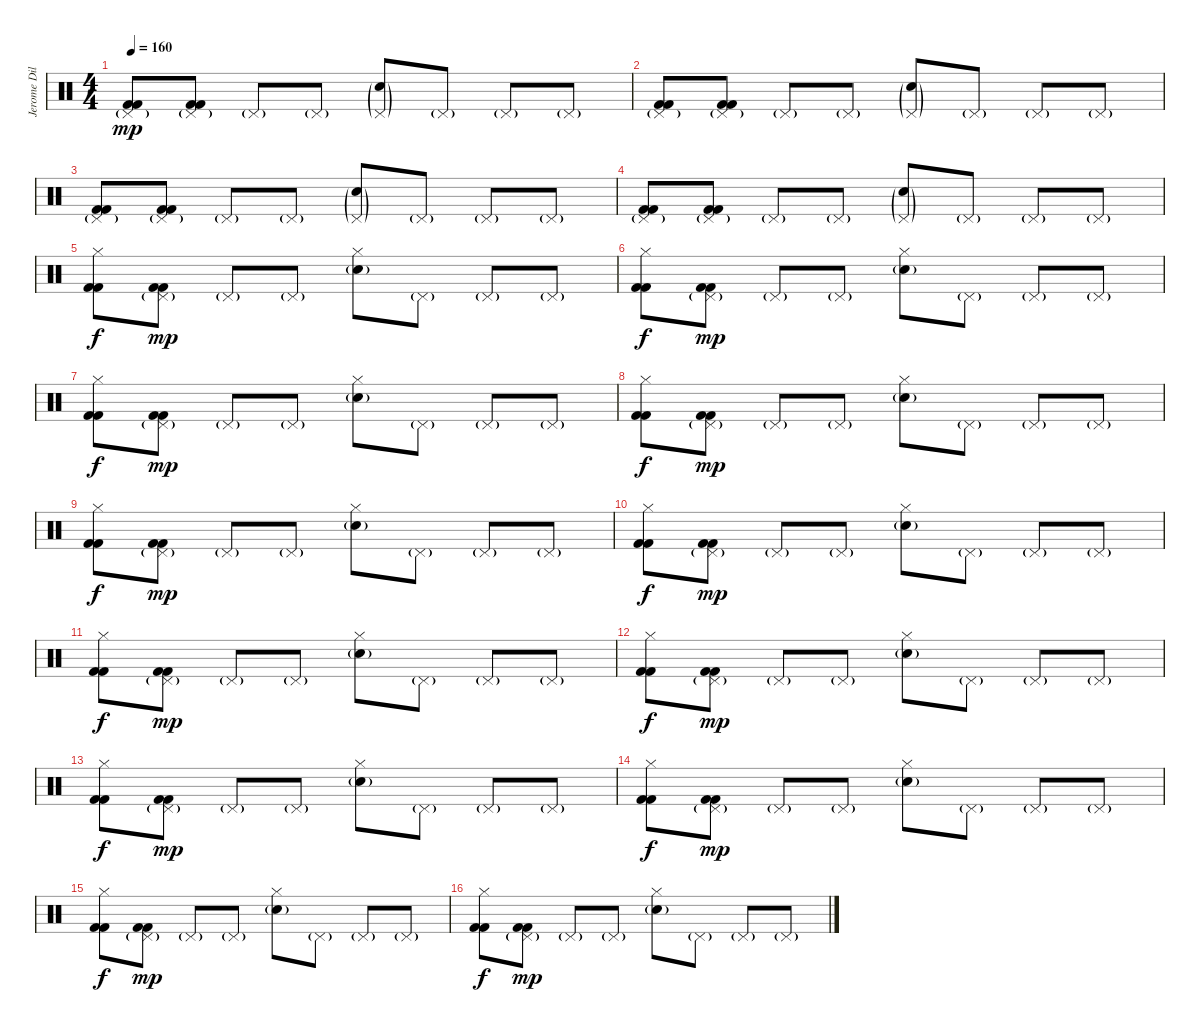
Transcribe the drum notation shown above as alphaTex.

\track ("Jerome Dillon" "Jerome Dil") {instrument percussion}
\staff {score}
\articulation defaults
\ts (4 4)
\tempo 160
\clef neutral
\ks c
("Pedal Hi-Hat (hit)"{g} "Kick (hit) 2" "Kick (hit) 2").8{dy mp} ("Pedal Hi-Hat (hit)"{g} "Kick (hit) 2" "Kick (hit) 2").8 "Pedal Hi-Hat (hit)"{g}.8 "Pedal Hi-Hat (hit)"{g}.8 ("Pedal Hi-Hat (hit)"{g} "Electric Snare (hit)"{g}).8 "Pedal Hi-Hat (hit)"{g}.8 "Pedal Hi-Hat (hit)"{g}.8 "Pedal Hi-Hat (hit)"{g}.8 |
("Pedal Hi-Hat (hit)"{g} "Kick (hit) 2" "Kick (hit) 2").8 ("Pedal Hi-Hat (hit)"{g} "Kick (hit) 2" "Kick (hit) 2").8 "Pedal Hi-Hat (hit)"{g}.8 "Pedal Hi-Hat (hit)"{g}.8 ("Pedal Hi-Hat (hit)"{g} "Electric Snare (hit)"{g}).8 "Pedal Hi-Hat (hit)"{g}.8 "Pedal Hi-Hat (hit)"{g}.8 "Pedal Hi-Hat (hit)"{g}.8 |
("Pedal Hi-Hat (hit)"{g} "Kick (hit) 2" "Kick (hit) 2").8 ("Pedal Hi-Hat (hit)"{g} "Kick (hit) 2" "Kick (hit) 2").8 "Pedal Hi-Hat (hit)"{g}.8 "Pedal Hi-Hat (hit)"{g}.8 ("Pedal Hi-Hat (hit)"{g} "Electric Snare (hit)"{g}).8 "Pedal Hi-Hat (hit)"{g}.8 "Pedal Hi-Hat (hit)"{g}.8 "Pedal Hi-Hat (hit)"{g}.8 |
("Pedal Hi-Hat (hit)"{g} "Kick (hit) 2" "Kick (hit) 2").8 ("Pedal Hi-Hat (hit)"{g} "Kick (hit) 2" "Kick (hit) 2").8 "Pedal Hi-Hat (hit)"{g}.8 "Pedal Hi-Hat (hit)"{g}.8 ("Pedal Hi-Hat (hit)"{g} "Electric Snare (hit)"{g}).8 "Pedal Hi-Hat (hit)"{g}.8 "Pedal Hi-Hat (hit)"{g}.8 "Pedal Hi-Hat (hit)"{g}.8 |
("Hi-Hat (closed)" "Kick (hit) 2" "Kick (hit) 2").8{dy f} ("Pedal Hi-Hat (hit)"{g} "Kick (hit) 2" "Kick (hit) 2").8{dy mp} "Pedal Hi-Hat (hit)"{g}.8 "Pedal Hi-Hat (hit)"{g}.8 ("Hi-Hat (closed)" "Electric Snare (hit)"{g}).8 "Pedal Hi-Hat (hit)"{g}.8 "Pedal Hi-Hat (hit)"{g}.8 "Pedal Hi-Hat (hit)"{g}.8 |
("Hi-Hat (closed)" "Kick (hit) 2" "Kick (hit) 2").8{dy f} ("Pedal Hi-Hat (hit)"{g} "Kick (hit) 2" "Kick (hit) 2").8{dy mp} "Pedal Hi-Hat (hit)"{g}.8 "Pedal Hi-Hat (hit)"{g}.8 ("Hi-Hat (closed)" "Electric Snare (hit)"{g}).8 "Pedal Hi-Hat (hit)"{g}.8 "Pedal Hi-Hat (hit)"{g}.8 "Pedal Hi-Hat (hit)"{g}.8 |
("Hi-Hat (closed)" "Kick (hit) 2" "Kick (hit) 2").8{dy f} ("Pedal Hi-Hat (hit)"{g} "Kick (hit) 2" "Kick (hit) 2").8{dy mp} "Pedal Hi-Hat (hit)"{g}.8 "Pedal Hi-Hat (hit)"{g}.8 ("Hi-Hat (closed)" "Electric Snare (hit)"{g}).8 "Pedal Hi-Hat (hit)"{g}.8 "Pedal Hi-Hat (hit)"{g}.8 "Pedal Hi-Hat (hit)"{g}.8 |
("Hi-Hat (closed)" "Kick (hit) 2" "Kick (hit) 2").8{dy f} ("Pedal Hi-Hat (hit)"{g} "Kick (hit) 2" "Kick (hit) 2").8{dy mp} "Pedal Hi-Hat (hit)"{g}.8 "Pedal Hi-Hat (hit)"{g}.8 ("Hi-Hat (closed)" "Electric Snare (hit)"{g}).8 "Pedal Hi-Hat (hit)"{g}.8 "Pedal Hi-Hat (hit)"{g}.8 "Pedal Hi-Hat (hit)"{g}.8 |
("Hi-Hat (closed)" "Kick (hit) 2" "Kick (hit) 2").8{dy f} ("Pedal Hi-Hat (hit)"{g} "Kick (hit) 2" "Kick (hit) 2").8{dy mp} "Pedal Hi-Hat (hit)"{g}.8 "Pedal Hi-Hat (hit)"{g}.8 ("Hi-Hat (closed)" "Electric Snare (hit)"{g}).8 "Pedal Hi-Hat (hit)"{g}.8 "Pedal Hi-Hat (hit)"{g}.8 "Pedal Hi-Hat (hit)"{g}.8 |
("Hi-Hat (closed)" "Kick (hit) 2" "Kick (hit) 2").8{dy f} ("Pedal Hi-Hat (hit)"{g} "Kick (hit) 2" "Kick (hit) 2").8{dy mp} "Pedal Hi-Hat (hit)"{g}.8 "Pedal Hi-Hat (hit)"{g}.8 ("Hi-Hat (closed)" "Electric Snare (hit)"{g}).8 "Pedal Hi-Hat (hit)"{g}.8 "Pedal Hi-Hat (hit)"{g}.8 "Pedal Hi-Hat (hit)"{g}.8 |
("Hi-Hat (closed)" "Kick (hit) 2" "Kick (hit) 2").8{dy f} ("Pedal Hi-Hat (hit)"{g} "Kick (hit) 2" "Kick (hit) 2").8{dy mp} "Pedal Hi-Hat (hit)"{g}.8 "Pedal Hi-Hat (hit)"{g}.8 ("Hi-Hat (closed)" "Electric Snare (hit)"{g}).8 "Pedal Hi-Hat (hit)"{g}.8 "Pedal Hi-Hat (hit)"{g}.8 "Pedal Hi-Hat (hit)"{g}.8 |
("Hi-Hat (closed)" "Kick (hit) 2" "Kick (hit) 2").8{dy f} ("Pedal Hi-Hat (hit)"{g} "Kick (hit) 2" "Kick (hit) 2").8{dy mp} "Pedal Hi-Hat (hit)"{g}.8 "Pedal Hi-Hat (hit)"{g}.8 ("Hi-Hat (closed)" "Electric Snare (hit)"{g}).8 "Pedal Hi-Hat (hit)"{g}.8 "Pedal Hi-Hat (hit)"{g}.8 "Pedal Hi-Hat (hit)"{g}.8 |
("Hi-Hat (closed)" "Kick (hit) 2" "Kick (hit) 2").8{dy f} ("Pedal Hi-Hat (hit)"{g} "Kick (hit) 2" "Kick (hit) 2").8{dy mp} "Pedal Hi-Hat (hit)"{g}.8 "Pedal Hi-Hat (hit)"{g}.8 ("Hi-Hat (closed)" "Electric Snare (hit)"{g}).8 "Pedal Hi-Hat (hit)"{g}.8 "Pedal Hi-Hat (hit)"{g}.8 "Pedal Hi-Hat (hit)"{g}.8 |
("Hi-Hat (closed)" "Kick (hit) 2" "Kick (hit) 2").8{dy f} ("Pedal Hi-Hat (hit)"{g} "Kick (hit) 2" "Kick (hit) 2").8{dy mp} "Pedal Hi-Hat (hit)"{g}.8 "Pedal Hi-Hat (hit)"{g}.8 ("Hi-Hat (closed)" "Electric Snare (hit)"{g}).8 "Pedal Hi-Hat (hit)"{g}.8 "Pedal Hi-Hat (hit)"{g}.8 "Pedal Hi-Hat (hit)"{g}.8 |
("Hi-Hat (closed)" "Kick (hit) 2" "Kick (hit) 2").8{dy f} ("Pedal Hi-Hat (hit)"{g} "Kick (hit) 2" "Kick (hit) 2").8{dy mp} "Pedal Hi-Hat (hit)"{g}.8 "Pedal Hi-Hat (hit)"{g}.8 ("Hi-Hat (closed)" "Electric Snare (hit)"{g}).8 "Pedal Hi-Hat (hit)"{g}.8 "Pedal Hi-Hat (hit)"{g}.8 "Pedal Hi-Hat (hit)"{g}.8 |
("Hi-Hat (closed)" "Kick (hit) 2" "Kick (hit) 2").8{dy f} ("Pedal Hi-Hat (hit)"{g} "Kick (hit) 2" "Kick (hit) 2").8{dy mp} "Pedal Hi-Hat (hit)"{g}.8 "Pedal Hi-Hat (hit)"{g}.8 ("Hi-Hat (closed)" "Electric Snare (hit)"{g}).8 "Pedal Hi-Hat (hit)"{g}.8 "Pedal Hi-Hat (hit)"{g}.8 "Pedal Hi-Hat (hit)"{g}.8
